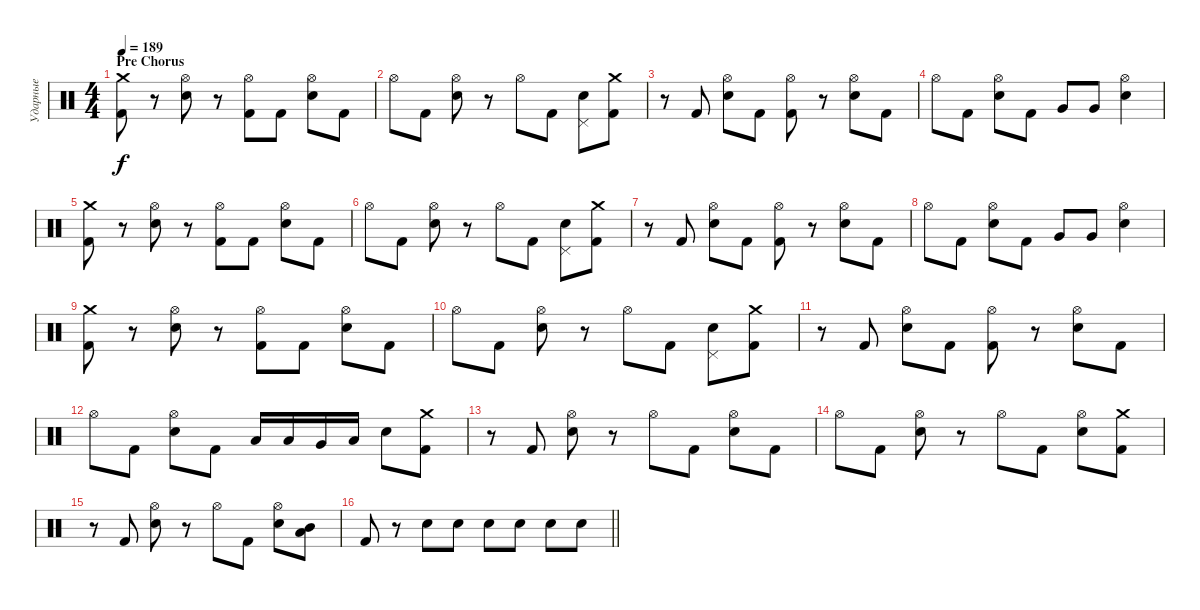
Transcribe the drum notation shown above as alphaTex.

\track ("Ударные" "Ударные") {instrument percussion}
\staff {score}
\articulation defaults
\ts (4 4)
\section ("" "Pre Chorus")
\tempo 189
\clef neutral
\ks c
("Crash medium (hit)" "Kick (hit) 2").8{dy f} r.8 ("Hi-Hat (open)" "Electric Snare (hit)").8 r.8 ("Hi-Hat (open)" "Kick (hit) 2").8 "Kick (hit) 2".8 ("Hi-Hat (open)" "Electric Snare (hit)").8 "Kick (hit) 2".8 |
"Hi-Hat (open)".8 "Kick (hit) 2".8 ("Hi-Hat (open)" "Electric Snare (hit)").8 r.8 "Hi-Hat (open)".8 "Kick (hit) 2".8 ("Pedal Hi-Hat (hit)" "Electric Snare (hit)").8 ("Crash medium (hit)" "Kick (hit) 2").8 |
r.8 "Kick (hit) 2".8 ("Hi-Hat (open)" "Electric Snare (hit)").8 "Kick (hit) 2".8 ("Hi-Hat (open)" "Kick (hit) 2").8 r.8 ("Hi-Hat (open)" "Electric Snare (hit)").8 "Kick (hit) 2".8 |
"Hi-Hat (open)".8 "Kick (hit) 2".8 ("Hi-Hat (open)" "Electric Snare (hit)").8 "Kick (hit) 2".8 "Very Low Tom (hit)".8 "Very Low Tom (hit)".8 ("Hi-Hat (open)" "Electric Snare (hit)").4 |
("Crash medium (hit)" "Kick (hit) 2").8 r.8 ("Hi-Hat (open)" "Electric Snare (hit)").8 r.8 ("Hi-Hat (open)" "Kick (hit) 2").8 "Kick (hit) 2".8 ("Hi-Hat (open)" "Electric Snare (hit)").8 "Kick (hit) 2".8 |
"Hi-Hat (open)".8 "Kick (hit) 2".8 ("Hi-Hat (open)" "Electric Snare (hit)").8 r.8 "Hi-Hat (open)".8 "Kick (hit) 2".8 ("Pedal Hi-Hat (hit)" "Electric Snare (hit)").8 ("Crash medium (hit)" "Kick (hit) 2").8 |
r.8 "Kick (hit) 2".8 ("Hi-Hat (open)" "Electric Snare (hit)").8 "Kick (hit) 2".8 ("Hi-Hat (open)" "Kick (hit) 2").8 r.8 ("Hi-Hat (open)" "Electric Snare (hit)").8 "Kick (hit) 2".8 |
"Hi-Hat (open)".8 "Kick (hit) 2".8 ("Hi-Hat (open)" "Electric Snare (hit)").8 "Kick (hit) 2".8 "Very Low Tom (hit)".8 "Very Low Tom (hit)".8 ("Hi-Hat (open)" "Electric Snare (hit)").4 |
("Crash medium (hit)" "Kick (hit) 2").8 r.8 ("Hi-Hat (open)" "Electric Snare (hit)").8 r.8 ("Hi-Hat (open)" "Kick (hit) 2").8 "Kick (hit) 2".8 ("Hi-Hat (open)" "Electric Snare (hit)").8 "Kick (hit) 2".8 |
"Hi-Hat (open)".8 "Kick (hit) 2".8 ("Hi-Hat (open)" "Electric Snare (hit)").8 r.8 "Hi-Hat (open)".8 "Kick (hit) 2".8 ("Pedal Hi-Hat (hit)" "Electric Snare (hit)").8 ("Crash medium (hit)" "Kick (hit) 2").8 |
r.8 "Kick (hit) 2".8 ("Hi-Hat (open)" "Electric Snare (hit)").8 "Kick (hit) 2".8 ("Hi-Hat (open)" "Kick (hit) 2").8 r.8 ("Hi-Hat (open)" "Electric Snare (hit)").8 "Kick (hit) 2".8 |
"Hi-Hat (open)".8 "Kick (hit) 2".8 ("Hi-Hat (open)" "Electric Snare (hit)").8 "Kick (hit) 2".8 "Low Tom (hit)".16 "Low Tom (hit)".16 "Very Low Tom (hit)".16 "Low Floor Tom (hit)".16 "Electric Snare (hit)".8 ("Crash medium (hit)" "Kick (hit) 2").8 |
r.8 "Kick (hit) 2".8 ("Hi-Hat (open)" "Electric Snare (hit)").8 r.8 "Hi-Hat (open)".8 "Kick (hit) 2".8 ("Hi-Hat (open)" "Electric Snare (hit)").8 "Kick (hit) 2".8 |
"Hi-Hat (open)".8 "Kick (hit) 2".8 ("Hi-Hat (open)" "Electric Snare (hit)").8 r.8 "Hi-Hat (open)".8 "Kick (hit) 2".8 ("Hi-Hat (open)" "Electric Snare (hit)").8 ("Crash medium (hit)" "Kick (hit) 2").8 |
r.8 "Kick (hit) 2".8 ("Hi-Hat (open)" "Electric Snare (hit)").8 r.8 "Hi-Hat (open)".8 "Kick (hit) 2".8 ("Hi-Hat (open)" "Electric Snare (hit)").8 ("Mid Tom (hit)" "Low Tom (hit)").8 |
\barLineRight lightlight "Kick (hit) 2".8
r.8 "Electric Snare (hit)".8 "Electric Snare (hit)".8 "Electric Snare (hit)".8 "Electric Snare (hit)".8 "Electric Snare (hit)".8 "Electric Snare (hit)".8
